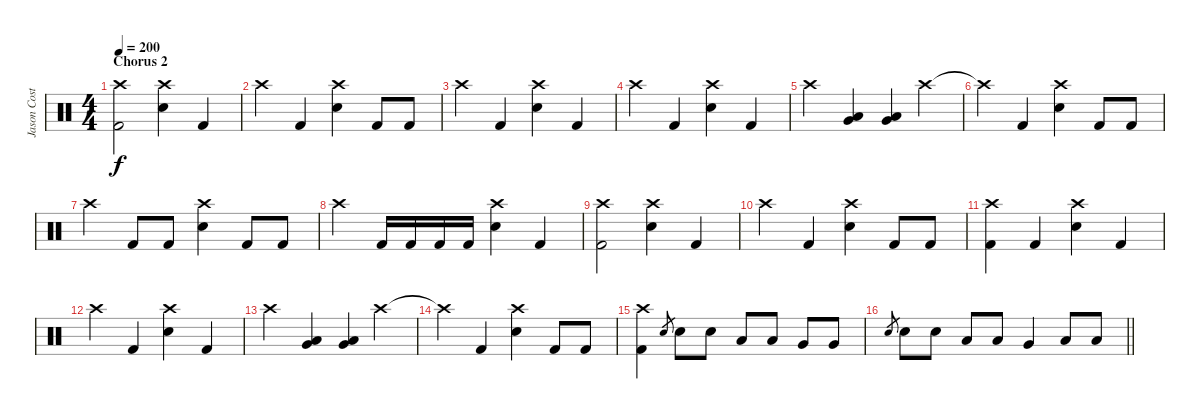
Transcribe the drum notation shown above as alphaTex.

\track ("Jason Costa" "Jason Cost") {instrument percussion}
\staff {score}
\articulation defaults
\ts (4 4)
\section ("" "Chorus 2")
\tempo 200
\clef neutral
\ks c
("Crash high (hit)" "Kick (hit) 2").2{dy f} ("Crash high (hit)" "Electric Snare (hit)").4 "Kick (hit) 2".4 |
"Crash high (hit)".4 "Kick (hit) 2".4 ("Crash high (hit)" "Electric Snare (hit)").4 "Kick (hit) 2".8 "Kick (hit) 2".8 |
"Crash high (hit)".4 "Kick (hit) 2".4 ("Crash high (hit)" "Electric Snare (hit)").4 "Kick (hit) 2".4 |
"Crash high (hit)".4 "Kick (hit) 2".4 ("Crash high (hit)" "Electric Snare (hit)").4 "Kick (hit) 2".4 |
"Crash high (hit)".4 ("Very Low Tom (hit)" "Low Floor Tom (hit)").4 ("Very Low Tom (hit)" "Low Floor Tom (hit)").4 "Crash high (hit)".4 |
"Crash high (hit)"{t}.4 "Kick (hit) 2".4 ("Crash high (hit)" "Electric Snare (hit)").4 "Kick (hit) 2".8 "Kick (hit) 2".8 |
"Crash high (hit)".4 "Kick (hit) 2".8 "Kick (hit) 2".8 ("Crash high (hit)" "Electric Snare (hit)").4 "Kick (hit) 2".8 "Kick (hit) 2".8 |
"Crash high (hit)".4 "Kick (hit) 2".16 "Kick (hit) 2".16 "Kick (hit) 2".16 "Kick (hit) 2".16 ("Crash high (hit)" "Electric Snare (hit)").4 "Kick (hit) 2".4 |
("Crash high (hit)" "Kick (hit) 2").2 ("Crash high (hit)" "Electric Snare (hit)").4 "Kick (hit) 2".4 |
"Crash high (hit)".4 "Kick (hit) 2".4 ("Crash high (hit)" "Electric Snare (hit)").4 "Kick (hit) 2".8 "Kick (hit) 2".8 |
("Crash high (hit)" "Kick (hit) 2").4 "Kick (hit) 2".4 ("Crash high (hit)" "Electric Snare (hit)").4 "Kick (hit) 2".4 |
"Crash high (hit)".4 "Kick (hit) 2".4 ("Crash high (hit)" "Electric Snare (hit)").4 "Kick (hit) 2".4 |
"Crash high (hit)".4 ("Very Low Tom (hit)" "Low Floor Tom (hit)").4 ("Very Low Tom (hit)" "Low Floor Tom (hit)").4 "Crash high (hit)".4 |
"Crash high (hit)"{t}.4 "Kick (hit) 2".4 ("Crash high (hit)" "Electric Snare (hit)").4 "Kick (hit) 2".8 "Kick (hit) 2".8 |
("Crash high (hit)" "Kick (hit) 2").4 "Electric Snare (hit)".8{gr} "Electric Snare (hit)".8 "Electric Snare (hit)".8 "Low Tom (hit)".8 "Low Tom (hit)".8 "Very Low Tom (hit)".8 "Very Low Tom (hit)".8 |
\barLineRight lightlight "Electric Snare (hit)".8{gr} "Electric Snare (hit)".8 "Electric Snare (hit)".8 "Low Tom (hit)".8 "Low Tom (hit)".8 "Very Low Tom (hit)".4 "Low Floor Tom (hit)".8 "Low Floor Tom (hit)".8
